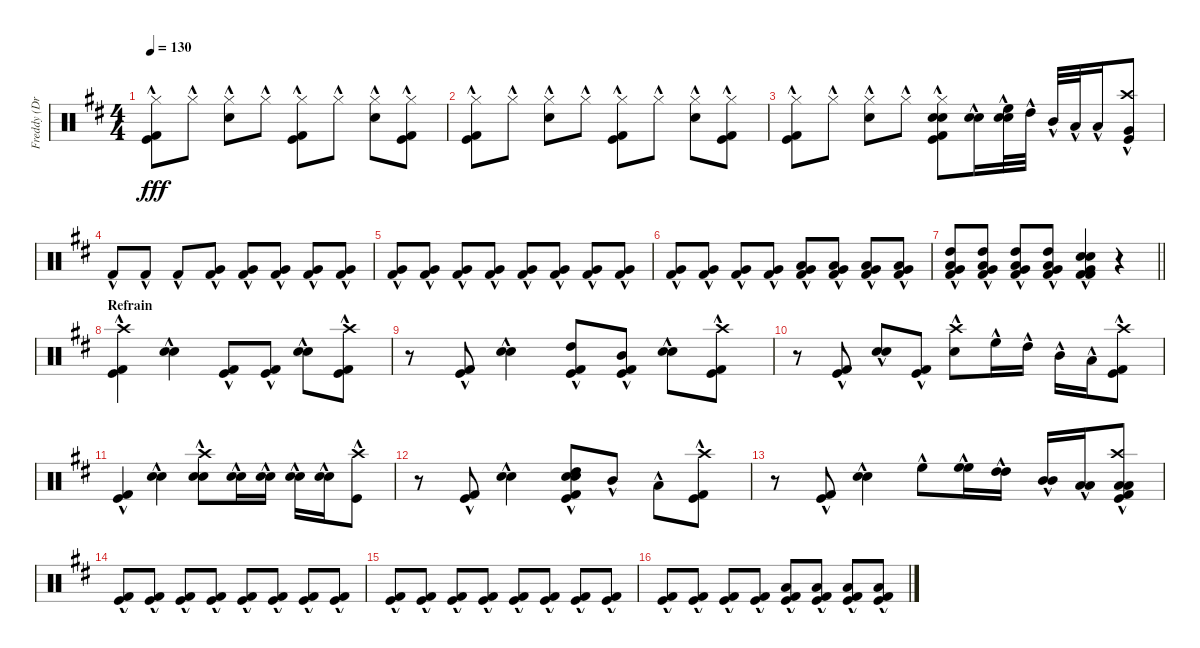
\track ("Freddy (Drums)" "Freddy (Dr") {instrument percussion}
\staff {score}
\articulation defaults
\ts (4 4)
\tempo 130
\clef neutral
\ks d
("Hi-Hat (closed)"{hac} "Kick (hit)"{hac} "Kick (hit) 2"{hac}).8{dy fff} "Hi-Hat (closed)"{hac}.8 ("Hi-Hat (closed)"{hac} "Snare (hit) 2"{hac}).8 "Hi-Hat (closed)"{hac}.8 ("Hi-Hat (closed)"{hac} "Kick (hit)"{hac} "Kick (hit) 2"{hac}).8 "Hi-Hat (closed)"{hac}.8 ("Hi-Hat (closed)"{hac} "Snare (hit) 2"{hac}).8 ("Hi-Hat (closed)"{hac} "Kick (hit)"{hac} "Kick (hit) 2"{hac}).8 |
("Hi-Hat (closed)"{hac} "Kick (hit)"{hac} "Kick (hit) 2"{hac}).8 "Hi-Hat (closed)"{hac}.8 ("Hi-Hat (closed)"{hac} "Snare (hit) 2"{hac}).8 "Hi-Hat (closed)"{hac}.8 ("Hi-Hat (closed)"{hac} "Kick (hit)"{hac} "Kick (hit) 2"{hac}).8 "Hi-Hat (closed)"{hac}.8 ("Hi-Hat (closed)"{hac} "Snare (hit) 2"{hac}).8 ("Hi-Hat (closed)"{hac} "Kick (hit)"{hac} "Kick (hit) 2"{hac}).8 |
("Hi-Hat (closed)"{hac} "Kick (hit)"{hac} "Kick (hit) 2"{hac}).8 "Hi-Hat (closed)"{hac}.8 ("Hi-Hat (closed)"{hac} "Snare (hit) 2"{hac}).8 "Hi-Hat (closed)"{hac}.8 ("Electric Snare (hit)"{hac} "Snare (hit) 2"{hac} "Hi-Hat (closed)"{hac} "Kick (hit)"{hac} "Kick (hit) 2"{hac}).8 ("Electric Snare (hit)"{hac} "Snare (hit) 2"{hac}).16 ("High Floor Tom (hit)"{hac} "Electric Snare (hit)"{hac} "Snare (hit) 2"{hac}).32 "High Tom (hit)"{hac}.32 "Mid Tom (hit)"{hac}.32 "Low Tom (hit)"{hac}.32 "Low Tom (hit)"{hac}.16 ("Crash high (hit)"{hac} "Very Low Tom (hit)"{hac} "Kick (hit)"{hac}).8 |
"Kick (hit) 2"{hac}.8 "Kick (hit) 2"{hac}.8 "Kick (hit) 2"{hac}.8 ("Very Low Tom (hit)"{hac} "Kick (hit) 2"{hac}).8 ("Very Low Tom (hit)"{hac} "Kick (hit) 2"{hac}).8 ("Very Low Tom (hit)"{hac} "Kick (hit) 2"{hac}).8 ("Very Low Tom (hit)"{hac} "Kick (hit) 2"{hac}).8 ("Very Low Tom (hit)"{hac} "Kick (hit) 2"{hac}).8 |
("Very Low Tom (hit)"{hac} "Kick (hit) 2"{hac}).8 ("Very Low Tom (hit)"{hac} "Kick (hit) 2"{hac}).8 ("Very Low Tom (hit)"{hac} "Kick (hit) 2"{hac}).8 ("Very Low Tom (hit)"{hac} "Kick (hit) 2"{hac}).8 ("Very Low Tom (hit)"{hac} "Kick (hit) 2"{hac}).8 ("Very Low Tom (hit)"{hac} "Kick (hit) 2"{hac}).8 ("Very Low Tom (hit)"{hac} "Kick (hit) 2"{hac}).8 ("Very Low Tom (hit)"{hac} "Kick (hit) 2"{hac}).8 |
("Very Low Tom (hit)"{hac} "Kick (hit) 2"{hac}).8 ("Very Low Tom (hit)"{hac} "Kick (hit) 2"{hac}).8 ("Very Low Tom (hit)"{hac} "Kick (hit) 2"{hac}).8 ("Very Low Tom (hit)"{hac} "Kick (hit) 2"{hac}).8 ("Low Tom (hit)"{hac} "Very Low Tom (hit)"{hac} "Kick (hit) 2"{hac}).8 ("Low Tom (hit)"{hac} "Very Low Tom (hit)"{hac} "Kick (hit) 2"{hac}).8 ("Low Tom (hit)"{hac} "Very Low Tom (hit)"{hac} "Kick (hit) 2"{hac}).8 ("Low Tom (hit)"{hac} "Very Low Tom (hit)"{hac} "Kick (hit) 2"{hac}).8 |
\barLineRight lightlight
("High Tom (hit)"{hac} "Low Tom (hit)"{hac} "Very Low Tom (hit)"{hac} "Kick (hit) 2"{hac}).8 ("High Tom (hit)"{hac} "Low Tom (hit)"{hac} "Very Low Tom (hit)"{hac} "Kick (hit) 2"{hac}).8 ("High Tom (hit)"{hac} "Low Tom (hit)"{hac} "Very Low Tom (hit)"{hac} "Kick (hit) 2"{hac}).8 ("High Tom (hit)"{hac} "Low Tom (hit)"{hac} "Very Low Tom (hit)"{hac} "Kick (hit) 2"{hac}).8 ("Electric Snare (hit)"{hac} "Snare (hit) 2"{hac} "Very Low Tom (hit)"{hac} "Kick (hit) 2"{hac} "Kick (hit) 2"{hac}).4 r.4 |
\section ("" "Refrain")
("Crash high (hit)"{hac} "Kick (hit)"{hac} "Kick (hit) 2"{hac}).4 ("Electric Snare (hit)"{hac} "Snare (hit) 2"{hac}).4 ("Kick (hit)"{hac} "Kick (hit) 2"{hac}).8 ("Kick (hit)"{hac} "Kick (hit) 2"{hac}).8 ("Snare (hit) 2"{hac} "Electric Snare (hit)"{hac}).8 ("Crash high (hit)"{hac} "Kick (hit)"{hac} "Kick (hit) 2"{hac}).8 |
r.8 ("Kick (hit)"{hac} "Kick (hit) 2"{hac}).8 ("Electric Snare (hit)"{hac} "Snare (hit) 2"{hac}).4 ("High Tom (hit)"{hac} "Kick (hit)"{hac} "Kick (hit) 2"{hac}).8 ("Mid Tom (hit)"{hac} "Kick (hit)"{hac} "Kick (hit) 2"{hac}).8 ("Snare (hit) 2"{hac} "Electric Snare (hit)"{hac}).8 ("Crash high (hit)"{hac} "Kick (hit)"{hac} "Kick (hit) 2"{hac}).8 |
r.8 ("Kick (hit)"{hac} "Kick (hit) 2"{hac}).8 ("Electric Snare (hit)"{hac} "Snare (hit) 2"{hac}).8 ("Kick (hit)"{hac} "Kick (hit) 2"{hac}).8 ("Snare (hit) 2"{hac} "Crash high (hit)"{hac}).8 "High Floor Tom (hit)"{hac}.16 "High Tom (hit)"{hac}.16 "Mid Tom (hit)"{hac}.16 "Low Tom (hit)"{hac}.16 ("Kick (hit)"{hac} "Kick (hit) 2"{hac} "Crash high (hit)"{hac}).8 |
("Kick (hit)"{hac} "Kick (hit) 2"{hac}).4 ("Snare (hit) 2"{hac} "Electric Snare (hit)"{hac}).4 ("Crash high (hit)"{hac} "Snare (hit) 2"{hac} "Electric Snare (hit)"{hac}).8 ("Snare (hit) 2"{hac} "Electric Snare (hit)"{hac}).16 ("Snare (hit) 2"{hac} "Electric Snare (hit)"{hac}).16 ("Snare (hit) 2"{hac} "Electric Snare (hit)"{hac}).16 ("Snare (hit) 2"{hac} "Electric Snare (hit)"{hac}).16 ("Crash high (hit)"{hac} "Kick (hit)"{hac}).8 |
r.8 ("Kick (hit)"{hac} "Kick (hit) 2"{hac}).8 ("Electric Snare (hit)"{hac} "Snare (hit) 2"{hac}).4 ("Kick (hit)"{hac} "Kick (hit) 2"{hac} "Snare (hit) 2"{hac} "Electric Snare (hit)"{hac} "High Tom (hit)"{hac}).8 "Mid Tom (hit)"{hac}.8 "Low Tom (hit)"{hac}.8 ("Crash high (hit)"{hac} "Kick (hit)"{hac} "Kick (hit) 2"{hac}).8 |
r.8 ("Kick (hit)"{hac} "Kick (hit) 2"{hac}).8 ("Electric Snare (hit)"{hac} "Snare (hit) 2"{hac}).4 "High Floor Tom (hit)"{hac}.8 ("High Floor Tom (hit)"{hac} "High Floor Tom (hit)"{hac}).16 ("High Tom (hit)"{hac} "High Tom (hit)"{hac}).16 ("Mid Tom (hit)"{hac} "Mid Tom (hit)"{hac}).16 ("Low Tom (hit)"{hac} "Low Tom (hit)"{hac}).16 ("Kick (hit)"{hac} "Low Floor Tom (hit)"{hac} "Low Floor Tom (hit)"{hac} "Kick (hit) 2"{hac} "Crash high (hit)"{hac}).8 |
("Kick (hit)"{hac} "Kick (hit) 2"{hac}).8 ("Kick (hit)"{hac} "Kick (hit) 2"{hac}).8 ("Kick (hit)"{hac} "Kick (hit) 2"{hac}).8 ("Kick (hit)"{hac} "Kick (hit) 2"{hac}).8 ("Kick (hit)"{hac} "Kick (hit) 2"{hac}).8 ("Kick (hit)"{hac} "Kick (hit) 2"{hac}).8 ("Kick (hit)"{hac} "Kick (hit) 2"{hac}).8 ("Kick (hit)"{hac} "Kick (hit) 2"{hac}).8 |
("Kick (hit)"{hac} "Kick (hit) 2"{hac}).8 ("Kick (hit)"{hac} "Kick (hit) 2"{hac}).8 ("Kick (hit)"{hac} "Kick (hit) 2"{hac}).8 ("Kick (hit)"{hac} "Kick (hit) 2"{hac}).8 ("Kick (hit)"{hac} "Kick (hit) 2"{hac}).8 ("Kick (hit)"{hac} "Kick (hit) 2"{hac}).8 ("Kick (hit)"{hac} "Kick (hit) 2"{hac}).8 ("Kick (hit)"{hac} "Kick (hit) 2"{hac}).8 |
("Kick (hit)"{hac} "Kick (hit) 2"{hac}).8 ("Kick (hit)"{hac} "Kick (hit) 2"{hac}).8 ("Kick (hit)"{hac} "Kick (hit) 2"{hac}).8 ("Kick (hit)"{hac} "Kick (hit) 2"{hac}).8 ("Kick (hit)"{hac} "Kick (hit) 2"{hac} "Low Tom (hit)"{hac}).8 ("Kick (hit)"{hac} "Kick (hit) 2"{hac} "Low Tom (hit)"{hac}).8 ("Kick (hit)"{hac} "Kick (hit) 2"{hac} "Low Tom (hit)"{hac}).8 ("Kick (hit)"{hac} "Kick (hit) 2"{hac} "Low Tom (hit)"{hac}).8
